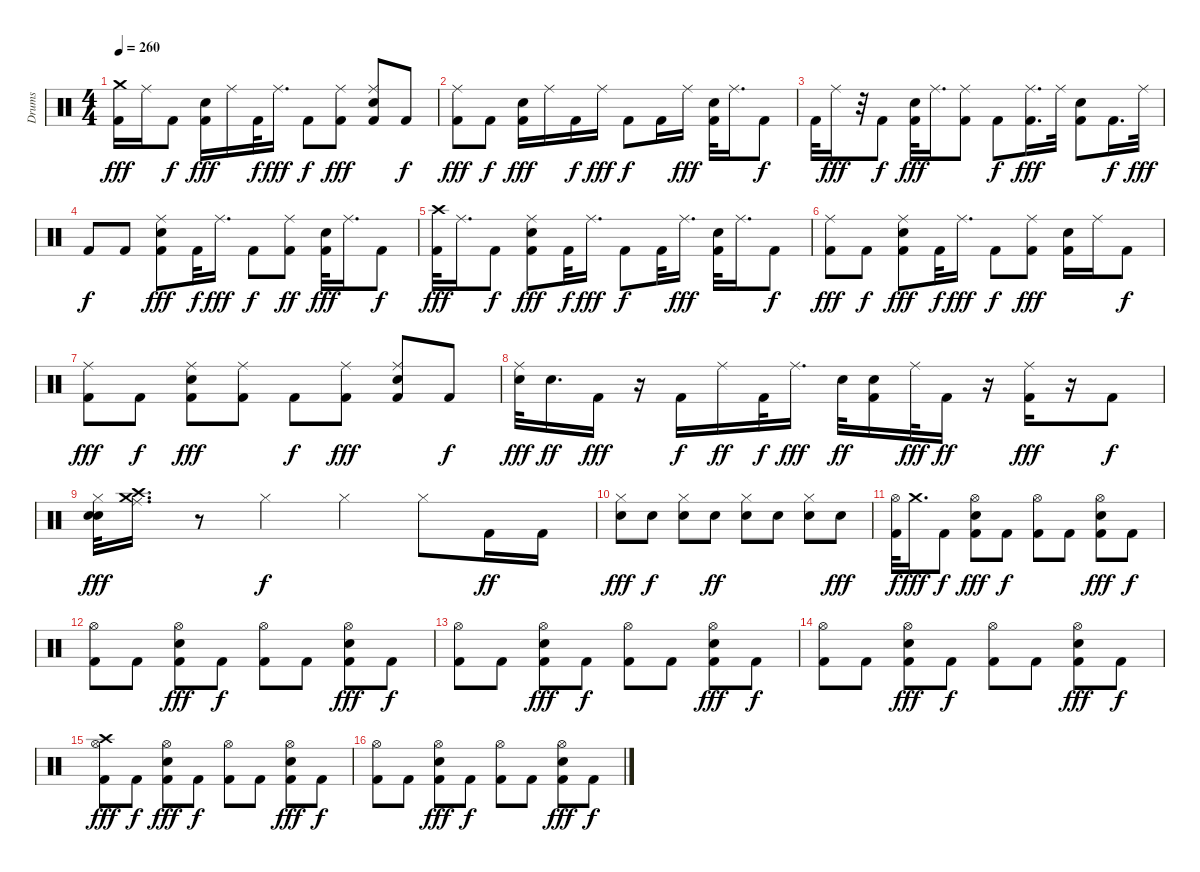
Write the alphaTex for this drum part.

\track ("Drums" "Drums") {instrument percussion}
\staff {score}
\articulation defaults
\ts (4 4)
\tempo 260
\clef neutral
\ks c
("Crash medium (hit)" "Kick (hit) 2").16{dy fff} "Ride (middle)".16 "Kick (hit) 2".8{dy f} ("Snare (hit) 2" "Kick (hit) 2").16{dy fff} "Ride (middle)".16 "Kick (hit) 2".32{dy f} "Ride (middle)".16{d dy fff} "Kick (hit) 2".8{dy f} ("Kick (hit) 2" "Ride (middle)").8{dy fff} ("Snare (hit) 2" "Kick (hit) 2" "Ride (middle)").8 "Kick (hit) 2".8{dy f} |
("Kick (hit) 2" "Ride (middle)").8{dy fff} "Kick (hit) 2".8{dy f} ("Snare (hit) 2" "Kick (hit) 2").16{dy fff} "Ride (middle)".16 "Kick (hit) 2".16{dy f} "Ride (middle)".16{dy fff} "Kick (hit) 2".8{dy f} "Kick (hit) 2".16 "Ride (middle)".16{dy fff} ("Snare (hit) 2" "Kick (hit) 2").32 "Ride (middle)".16{d} "Kick (hit) 2".8{dy f} |
"Kick (hit) 2".32 "Ride (middle)".16{dy fff} r.32 "Kick (hit) 2".8{dy f} ("Snare (hit) 2" "Kick (hit) 2").32{dy fff} "Ride (middle)".16{d} ("Kick (hit) 2" "Ride (middle)").8 "Kick (hit) 2".8{dy f} ("Ride (middle)" "Kick (hit) 2").16{d dy fff} "Ride (middle)".32 ("Snare (hit) 2" "Kick (hit) 2").8 "Kick (hit) 2".16{d dy f} "Ride (middle)".32{dy fff} |
"Kick (hit) 2".8{dy f} "Kick (hit) 2".8 ("Snare (hit) 2" "Kick (hit) 2" "Ride (middle)").8{dy fff} "Kick (hit) 2".32{dy f} "Ride (middle)".16{d dy fff} "Kick (hit) 2".8{dy f} ("Kick (hit) 2" "Ride (middle)").8{dy ff} ("Snare (hit) 2" "Kick (hit) 2").32{dy fff} "Ride (middle)".16{d} "Kick (hit) 2".8{dy f} |
("Crash high (hit)" "Kick (hit) 2").32{dy fff} "Ride (middle)".16{d} "Kick (hit) 2".8{dy f} ("Snare (hit) 2" "Kick (hit) 2" "Ride (middle)").8{dy fff} "Kick (hit) 2".32{dy f} "Ride (middle)".16{d dy fff} "Kick (hit) 2".8{dy f} "Kick (hit) 2".32 "Ride (middle)".16{d dy fff} ("Snare (hit) 2" "Kick (hit) 2").32 "Ride (middle)".16{d} "Kick (hit) 2".8{dy f} |
("Ride (middle)" "Kick (hit) 2").8{dy fff} "Kick (hit) 2".8{dy f} ("Snare (hit) 2" "Kick (hit) 2" "Ride (middle)").8{dy fff} "Kick (hit) 2".32{dy f} "Ride (middle)".16{d dy fff} "Kick (hit) 2".8{dy f} ("Ride (middle)" "Kick (hit) 2").8{dy fff} ("Snare (hit) 2" "Kick (hit) 2").16 "Ride (middle)".16 "Kick (hit) 2".8{dy f} |
("Kick (hit) 2" "Ride (middle)").8{dy fff} "Kick (hit) 2".8{dy f} ("Snare (hit) 2" "Kick (hit) 2" "Ride (middle)").8{dy fff} ("Kick (hit) 2" "Ride (middle)").8 "Kick (hit) 2".8{dy f} ("Kick (hit) 2" "Ride (middle)").8{dy fff} ("Ride (middle)" "Snare (hit) 2" "Kick (hit) 2").8 "Kick (hit) 2".8{dy f} |
("Electric Snare (hit)" "Ride (middle)").32{dy fff} "Snare (hit) 2".16{d dy ff} "Kick (hit) 2".16{dy fff} r.16 "Kick (hit) 2".16{dy f} "Ride (middle)".16{dy ff} "Kick (hit) 2".32{dy f} "Ride (middle)".16{d dy fff} "Electric Snare (hit)".32{dy ff} ("Snare (hit) 2" "Kick (hit) 2").16 "Ride (middle)".32{dy fff} "Kick (hit) 2".16{dy ff} r.16 ("Kick (hit) 2" "Ride (middle)").16{dy fff} r.16 "Kick (hit) 2".8{dy f} |
("Electric Snare (hit)" "Snare (hit) 2" "Hi-Hat (closed)").32{dy fff} ("Ride (middle)" "Crash high (hit)" "Crash medium (hit)").16{d} r.8 "Hi-Hat (closed)".4{dy f} "Hi-Hat (closed)".4 "Hi-Hat (closed)".8 "Kick (hit) 2".16{dy ff} "Kick (hit) 2".16 |
("Hi-Hat (closed)" "Snare (hit) 2").8{dy fff} "Snare (hit) 2".8{dy f} ("Hi-Hat (closed)" "Snare (hit) 2").8 "Snare (hit) 2".8{dy ff} ("Hi-Hat (closed)" "Snare (hit) 2").8 "Snare (hit) 2".8 ("Hi-Hat (closed)" "Snare (hit) 2").8 "Snare (hit) 2".8{dy fff} |
("Hi-Hat (open)" "Kick (hit) 2").32{dy f} "Crash medium (hit)".16{d dy fff} "Kick (hit) 2".8{dy f} ("Hi-Hat (open)" "Snare (hit) 2" "Kick (hit) 2").8{dy fff} "Kick (hit) 2".8{dy f} ("Hi-Hat (open)" "Kick (hit) 2").8 "Kick (hit) 2".8 ("Hi-Hat (open)" "Snare (hit) 2" "Kick (hit) 2").8{dy fff} "Kick (hit) 2".8{dy f} |
("Hi-Hat (open)" "Kick (hit) 2").8 "Kick (hit) 2".8 ("Hi-Hat (open)" "Snare (hit) 2" "Kick (hit) 2").8{dy fff} "Kick (hit) 2".8{dy f} ("Hi-Hat (open)" "Kick (hit) 2").8 "Kick (hit) 2".8 ("Hi-Hat (open)" "Snare (hit) 2" "Kick (hit) 2").8{dy fff} "Kick (hit) 2".8{dy f} |
("Hi-Hat (open)" "Kick (hit) 2").8 "Kick (hit) 2".8 ("Hi-Hat (open)" "Snare (hit) 2" "Kick (hit) 2").8{dy fff} "Kick (hit) 2".8{dy f} ("Hi-Hat (open)" "Kick (hit) 2").8 "Kick (hit) 2".8 ("Hi-Hat (open)" "Snare (hit) 2" "Kick (hit) 2").8{dy fff} "Kick (hit) 2".8{dy f} |
("Hi-Hat (open)" "Kick (hit) 2").8 "Kick (hit) 2".8 ("Hi-Hat (open)" "Snare (hit) 2" "Kick (hit) 2").8{dy fff} "Kick (hit) 2".8{dy f} ("Hi-Hat (open)" "Kick (hit) 2").8 "Kick (hit) 2".8 ("Hi-Hat (open)" "Snare (hit) 2" "Kick (hit) 2").8{dy fff} "Kick (hit) 2".8{dy f} |
("Hi-Hat (open)" "Kick (hit) 2" "Crash high (hit)").8{dy fff} "Kick (hit) 2".8{dy f} ("Hi-Hat (open)" "Snare (hit) 2" "Kick (hit) 2").8{dy fff} "Kick (hit) 2".8{dy f} ("Hi-Hat (open)" "Kick (hit) 2").8 "Kick (hit) 2".8 ("Hi-Hat (open)" "Snare (hit) 2" "Kick (hit) 2").8{dy fff} "Kick (hit) 2".8{dy f} |
("Hi-Hat (open)" "Kick (hit) 2").8 "Kick (hit) 2".8 ("Hi-Hat (open)" "Snare (hit) 2" "Kick (hit) 2").8{dy fff} "Kick (hit) 2".8{dy f} ("Hi-Hat (open)" "Kick (hit) 2").8 "Kick (hit) 2".8 ("Hi-Hat (open)" "Snare (hit) 2" "Kick (hit) 2").8{dy fff} "Kick (hit) 2".8{dy f}
